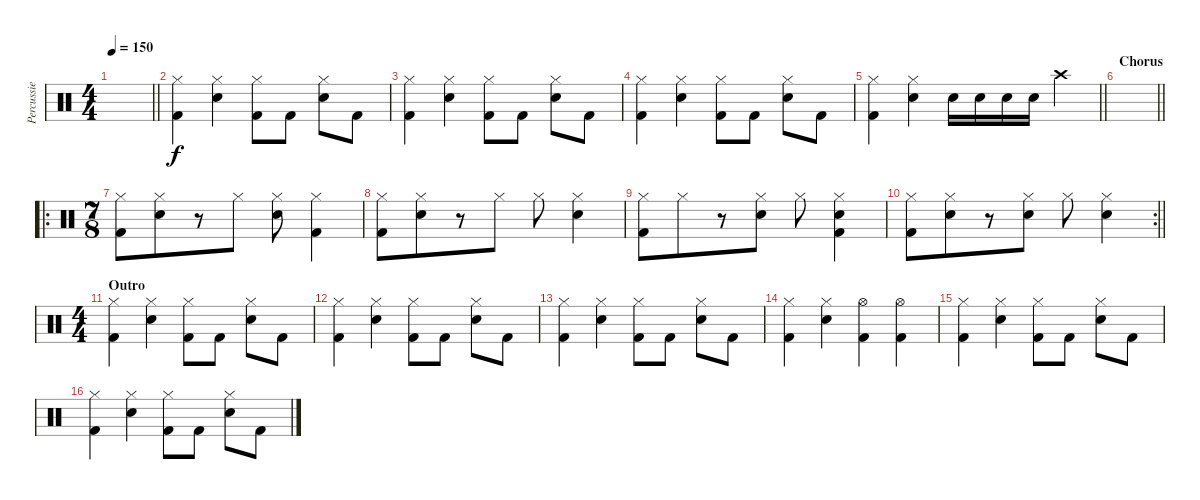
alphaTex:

\track ("Percussie" "Percussie") {instrument percussion}
\staff {score}
\articulation defaults
\ts (4 4)
\tempo 150
\clef neutral
\barLineRight lightlight
\ks c
|
("Hi-Hat (closed)" "Kick (hit) 2").4 ("Hi-Hat (closed)" "Snare (hit) 2").4 ("Hi-Hat (closed)" "Kick (hit) 2").8 "Kick (hit) 2".8 ("Hi-Hat (closed)" "Snare (hit) 2").8 "Kick (hit) 2".8 |
("Hi-Hat (closed)" "Kick (hit) 2").4 ("Hi-Hat (closed)" "Snare (hit) 2").4 ("Hi-Hat (closed)" "Kick (hit) 2").8 "Kick (hit) 2".8 ("Hi-Hat (closed)" "Snare (hit) 2").8 "Kick (hit) 2".8 |
("Hi-Hat (closed)" "Kick (hit) 2").4 ("Hi-Hat (closed)" "Snare (hit) 2").4 ("Hi-Hat (closed)" "Kick (hit) 2").8 "Kick (hit) 2".8 ("Hi-Hat (closed)" "Snare (hit) 2").8 "Kick (hit) 2".8 |
\barLineRight lightlight
("Hi-Hat (closed)" "Kick (hit) 2").4 ("Hi-Hat (closed)" "Snare (hit) 2").4 "Snare (hit) 2".16 "Snare (hit) 2".16 "Snare (hit) 2".16 "Snare (hit) 2".16 "Crash high (hit)".4 |
\section ("" "Chorus")
\barLineRight lightlight
|
\ro
\ts (7 8)
("Kick (hit) 2" "Hi-Hat (closed)").8 ("Electric Snare (hit)" "Hi-Hat (closed)").8 r.8 "Hi-Hat (closed)".8 ("Electric Snare (hit)" "Hi-Hat (closed)").8 ("Kick (hit) 2" "Hi-Hat (closed)").4 |
("Kick (hit) 2" "Hi-Hat (closed)").8 ("Electric Snare (hit)" "Hi-Hat (closed)").8 r.8 "Hi-Hat (closed)".8 "Hi-Hat (closed)".8 ("Electric Snare (hit)" "Hi-Hat (closed)").4 |
("Kick (hit) 2" "Hi-Hat (closed)").8 "Hi-Hat (closed)".8 r.8 ("Electric Snare (hit)" "Hi-Hat (closed)").8 "Hi-Hat (closed)".8 ("Kick (hit) 2" "Electric Snare (hit)" "Hi-Hat (closed)").4 |
\rc 2
\barLineRight lightlight
("Kick (hit) 2" "Hi-Hat (closed)").8 ("Electric Snare (hit)" "Hi-Hat (closed)").8 r.8 ("Electric Snare (hit)" "Hi-Hat (closed)").8 "Hi-Hat (closed)".8 ("Electric Snare (hit)" "Hi-Hat (closed)").4 |
\ts (4 4)
\section ("" "Outro")
("Hi-Hat (closed)" "Kick (hit) 2").4 ("Hi-Hat (closed)" "Snare (hit) 2").4 ("Hi-Hat (closed)" "Kick (hit) 2").8 "Kick (hit) 2".8 ("Hi-Hat (closed)" "Snare (hit) 2").8 "Kick (hit) 2".8 |
("Hi-Hat (closed)" "Kick (hit) 2").4 ("Hi-Hat (closed)" "Snare (hit) 2").4 ("Hi-Hat (closed)" "Kick (hit) 2").8 "Kick (hit) 2".8 ("Hi-Hat (closed)" "Snare (hit) 2").8 "Kick (hit) 2".8 |
("Hi-Hat (closed)" "Kick (hit) 2").4 ("Hi-Hat (closed)" "Snare (hit) 2").4 ("Hi-Hat (closed)" "Kick (hit) 2").8 "Kick (hit) 2".8 ("Hi-Hat (closed)" "Snare (hit) 2").8 "Kick (hit) 2".8 |
("Hi-Hat (closed)" "Kick (hit) 2").4 ("Hi-Hat (closed)" "Snare (hit) 2").4 ("Hi-Hat (open)" "Kick (hit) 2").4 ("Hi-Hat (open)" "Kick (hit) 2").4 |
("Hi-Hat (closed)" "Kick (hit) 2").4 ("Hi-Hat (closed)" "Snare (hit) 2").4 ("Hi-Hat (closed)" "Kick (hit) 2").8 "Kick (hit) 2".8 ("Hi-Hat (closed)" "Snare (hit) 2").8 "Kick (hit) 2".8 |
("Hi-Hat (closed)" "Kick (hit) 2").4 ("Hi-Hat (closed)" "Snare (hit) 2").4 ("Hi-Hat (closed)" "Kick (hit) 2").8 "Kick (hit) 2".8 ("Hi-Hat (closed)" "Snare (hit) 2").8 "Kick (hit) 2".8
